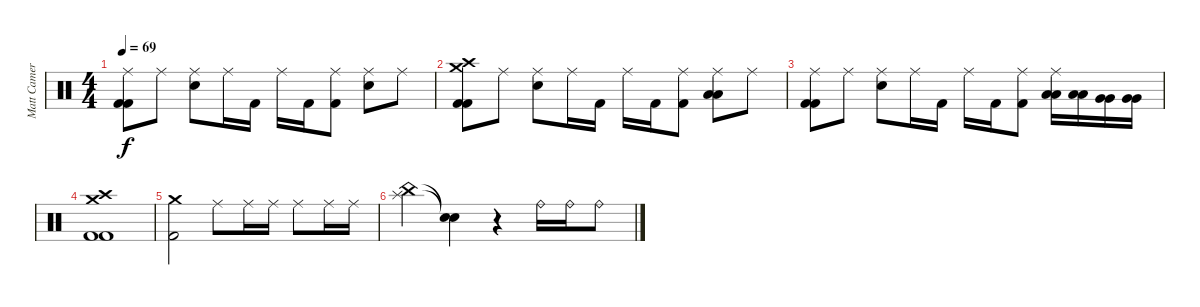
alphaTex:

\track ("Matt Cameron" "Matt Camer") {instrument percussion}
\staff {score}
\articulation defaults
\ts (4 4)
\tempo 69
\clef neutral
\ks c
("Kick (hit) 2" "Kick (hit) 2" "Ride (middle)").8{dy f} "Ride (middle)".8 ("Electric Snare (hit)" "Ride (middle)").8 "Ride (middle)".16 "Kick (hit) 2".16 "Ride (middle)".16 "Kick (hit) 2".16 ("Kick (hit) 2" "Ride (middle)").8 ("Electric Snare (hit)" "Ride (middle)").8 "Ride (middle)".8 |
("Crash high (hit)" "Kick (hit) 2" "Kick (hit) 2" "Crash medium (hit)").8 "Ride (middle)".8 ("Electric Snare (hit)" "Ride (middle)").8 "Ride (middle)".16 "Kick (hit) 2".16 "Ride (middle)".16 "Kick (hit) 2".16 ("Kick (hit) 2" "Ride (middle)").8 ("Low Tom (hit)" "Low Tom (hit)" "Ride (middle)").8 "Ride (middle)".8 |
("Kick (hit) 2" "Kick (hit) 2" "Ride (middle)").8 "Ride (middle)".8 ("Electric Snare (hit)" "Ride (middle)").8 "Ride (middle)".16 "Kick (hit) 2".16 "Ride (middle)".16 "Kick (hit) 2".16 ("Kick (hit) 2" "Ride (middle)").8 ("Low Tom (hit)" "Low Tom (hit)" "Ride (middle)").16 ("Low Tom (hit)" "Low Tom (hit)").16 ("Very Low Tom (hit)" "Very Low Tom (hit)").16 ("Very Low Tom (hit)" "Very Low Tom (hit)").16 |
("Crash medium (hit)" "Kick (hit) 2" "Kick (hit) 2" "Crash high (hit)").1 |
("Kick (hit) 2" "Crash medium (hit)").2 "Ride (middle)".8 "Ride (middle)".16 "Ride (middle)".16 "Ride (middle)".8 "Ride (middle)".16 "Ride (middle)".16 |
("Splash (hit)" "China (hit)").4 ("Snare (hit)"{t} "Snare (hit)"{t}).4 r.4 "Ride (bell)".16 "Ride (bell)".16 "Ride (bell)".8
